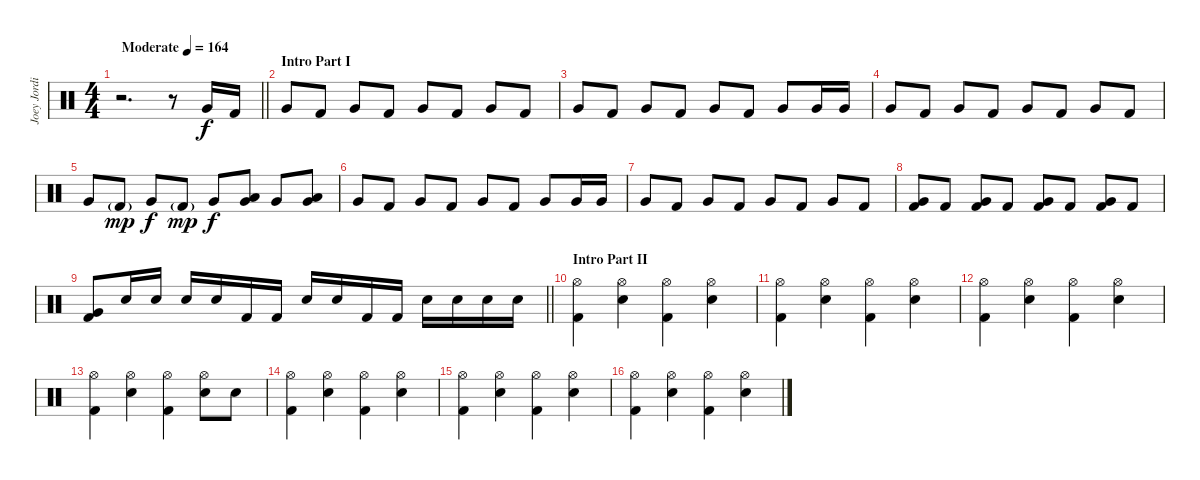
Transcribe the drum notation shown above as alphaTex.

\track ("Joey Jordison III" "Joey Jordi") {instrument percussion}
\staff {score}
\articulation defaults
\ts (4 4)
\tempo (164 "Moderate")
\clef neutral
\barLineRight lightlight
\ks c
r.2{d dy f} r.8 "Very Low Tom (hit)".16 "Kick (hit) 2".16 |
\section ("" "Intro Part I")
"Very Low Tom (hit)".8 "Kick (hit) 2".8 "Very Low Tom (hit)".8 "Kick (hit) 2".8 "Very Low Tom (hit)".8 "Kick (hit) 2".8 "Very Low Tom (hit)".8 "Kick (hit) 2".8 |
"Very Low Tom (hit)".8 "Kick (hit) 2".8 "Very Low Tom (hit)".8 "Kick (hit) 2".8 "Very Low Tom (hit)".8 "Kick (hit) 2".8 "Very Low Tom (hit)".8 "Very Low Tom (hit)".16 "Very Low Tom (hit)".16 |
"Very Low Tom (hit)".8 "Kick (hit) 2".8 "Very Low Tom (hit)".8 "Kick (hit) 2".8 "Very Low Tom (hit)".8 "Kick (hit) 2".8 "Very Low Tom (hit)".8 "Kick (hit) 2".8 |
"Very Low Tom (hit)".8 "Kick (hit) 2"{g}.8{dy mp} "Very Low Tom (hit)".8{dy f} "Kick (hit) 2"{g}.8{dy mp} "Very Low Tom (hit)".8{dy f} ("Very Low Tom (hit)" "Low Floor Tom (hit)").8 "Very Low Tom (hit)".8 ("Very Low Tom (hit)" "Low Floor Tom (hit)").8 |
"Very Low Tom (hit)".8 "Kick (hit) 2".8 "Very Low Tom (hit)".8 "Kick (hit) 2".8 "Very Low Tom (hit)".8 "Kick (hit) 2".8 "Very Low Tom (hit)".8 "Very Low Tom (hit)".16 "Very Low Tom (hit)".16 |
"Very Low Tom (hit)".8 "Kick (hit) 2".8 "Very Low Tom (hit)".8 "Kick (hit) 2".8 "Very Low Tom (hit)".8 "Kick (hit) 2".8 "Very Low Tom (hit)".8 "Kick (hit) 2".8 |
("Very Low Tom (hit)" "Kick (hit) 2").8 "Kick (hit) 2".8 ("Very Low Tom (hit)" "Kick (hit) 2").8 "Kick (hit) 2".8 ("Very Low Tom (hit)" "Kick (hit) 2").8 "Kick (hit) 2".8 ("Very Low Tom (hit)" "Kick (hit) 2").8 "Kick (hit) 2".8 |
\barLineRight lightlight
("Very Low Tom (hit)" "Kick (hit) 2").8 "Electric Snare (hit)".16 "Electric Snare (hit)".16 "Electric Snare (hit)".16 "Electric Snare (hit)".16 "Kick (hit) 2".16 "Kick (hit) 2".16 "Electric Snare (hit)".16 "Electric Snare (hit)".16 "Kick (hit) 2".16 "Kick (hit) 2".16 "Electric Snare (hit)".16 "Electric Snare (hit)".16 "Electric Snare (hit)".16 "Electric Snare (hit)".16 |
\section ("" "Intro Part II")
("Hi-Hat (open)" "Kick (hit) 2").4 ("Hi-Hat (open)" "Electric Snare (hit)").4 ("Hi-Hat (open)" "Kick (hit) 2").4 ("Hi-Hat (open)" "Electric Snare (hit)").4 |
("Hi-Hat (open)" "Kick (hit) 2").4 ("Hi-Hat (open)" "Electric Snare (hit)").4 ("Hi-Hat (open)" "Kick (hit) 2").4 ("Hi-Hat (open)" "Electric Snare (hit)").4 |
("Hi-Hat (open)" "Kick (hit) 2").4 ("Hi-Hat (open)" "Electric Snare (hit)").4 ("Hi-Hat (open)" "Kick (hit) 2").4 ("Hi-Hat (open)" "Electric Snare (hit)").4 |
("Hi-Hat (open)" "Kick (hit) 2").4 ("Hi-Hat (open)" "Electric Snare (hit)").4 ("Hi-Hat (open)" "Kick (hit) 2").4 ("Hi-Hat (open)" "Electric Snare (hit)").8 "Electric Snare (hit)".8 |
("Hi-Hat (open)" "Kick (hit) 2").4 ("Hi-Hat (open)" "Electric Snare (hit)").4 ("Hi-Hat (open)" "Kick (hit) 2").4 ("Hi-Hat (open)" "Electric Snare (hit)").4 |
("Hi-Hat (open)" "Kick (hit) 2").4 ("Hi-Hat (open)" "Electric Snare (hit)").4 ("Hi-Hat (open)" "Kick (hit) 2").4 ("Hi-Hat (open)" "Electric Snare (hit)").4 |
("Hi-Hat (open)" "Kick (hit) 2").4 ("Hi-Hat (open)" "Electric Snare (hit)").4 ("Hi-Hat (open)" "Kick (hit) 2").4 ("Hi-Hat (open)" "Electric Snare (hit)").4
